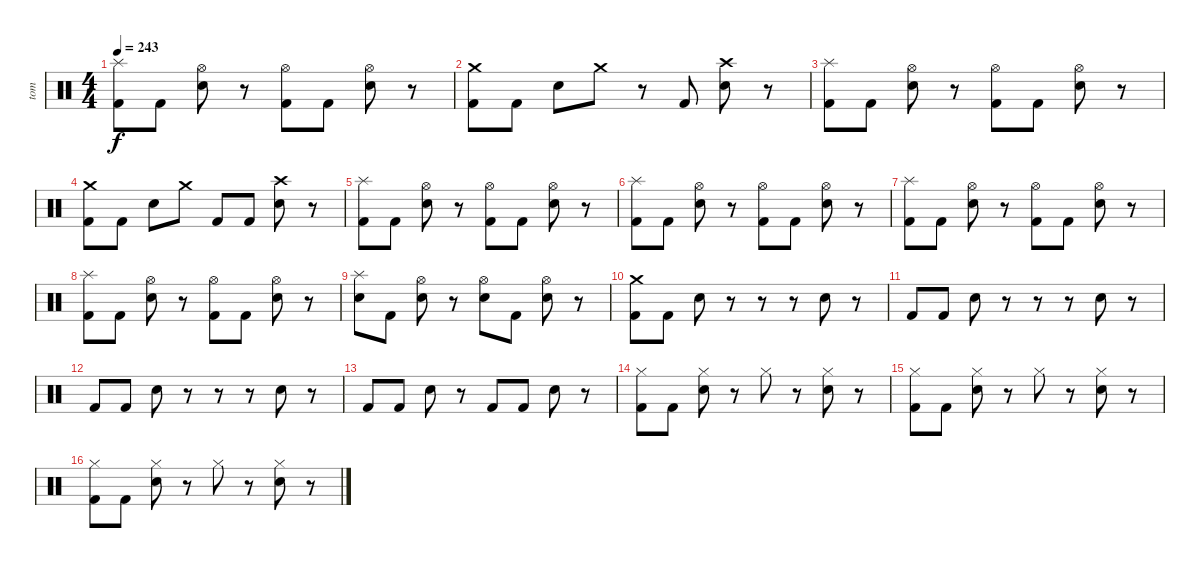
\track ("tom" "tom") {instrument percussion}
\staff {score}
\articulation defaults
\ts (4 4)
\tempo 243
\clef neutral
\ks c
("Splash (hit)" "Kick (hit) 2").8{dy f} "Kick (hit) 2".8 ("Hi-Hat (open)" "Electric Snare (hit)").8 r.8 ("Hi-Hat (open)" "Kick (hit) 2").8 "Kick (hit) 2".8 ("Hi-Hat (open)" "Electric Snare (hit)").8 r.8 |
("Crash medium (hit)" "Kick (hit) 2").8 "Kick (hit) 2".8 "Electric Snare (hit)".8 "Crash medium (hit)".8 r.8 "Kick (hit) 2".8 ("Crash high (hit)" "Electric Snare (hit)").8 r.8 |
("Splash (hit)" "Kick (hit) 2").8 "Kick (hit) 2".8 ("Hi-Hat (open)" "Electric Snare (hit)").8 r.8 ("Hi-Hat (open)" "Kick (hit) 2").8 "Kick (hit) 2".8 ("Hi-Hat (open)" "Electric Snare (hit)").8 r.8 |
("Crash medium (hit)" "Kick (hit) 2").8 "Kick (hit) 2".8 "Electric Snare (hit)".8 "Crash medium (hit)".8 "Kick (hit) 2".8 "Kick (hit) 2".8 ("Crash high (hit)" "Electric Snare (hit)").8 r.8 |
("Splash (hit)" "Kick (hit) 2").8 "Kick (hit) 2".8 ("Hi-Hat (open)" "Electric Snare (hit)").8 r.8 ("Hi-Hat (open)" "Kick (hit) 2").8 "Kick (hit) 2".8 ("Hi-Hat (open)" "Electric Snare (hit)").8 r.8 |
("Splash (hit)" "Kick (hit) 2").8 "Kick (hit) 2".8 ("Hi-Hat (open)" "Electric Snare (hit)").8 r.8 ("Hi-Hat (open)" "Kick (hit) 2").8 "Kick (hit) 2".8 ("Hi-Hat (open)" "Electric Snare (hit)").8 r.8 |
("Splash (hit)" "Kick (hit) 2").8 "Kick (hit) 2".8 ("Hi-Hat (open)" "Electric Snare (hit)").8 r.8 ("Hi-Hat (open)" "Kick (hit) 2").8 "Kick (hit) 2".8 ("Hi-Hat (open)" "Electric Snare (hit)").8 r.8 |
("Splash (hit)" "Kick (hit) 2").8 "Kick (hit) 2".8 ("Hi-Hat (open)" "Electric Snare (hit)").8 r.8 ("Hi-Hat (open)" "Kick (hit) 2").8 "Kick (hit) 2".8 ("Hi-Hat (open)" "Electric Snare (hit)").8 r.8 |
("Splash (hit)" "Electric Snare (hit)").8 "Kick (hit) 2".8 ("Hi-Hat (open)" "Electric Snare (hit)").8 r.8 ("Hi-Hat (open)" "Electric Snare (hit)").8 "Kick (hit) 2".8 ("Hi-Hat (open)" "Electric Snare (hit)").8 r.8 |
("Crash medium (hit)" "Kick (hit) 2").8 "Kick (hit) 2".8 "Electric Snare (hit)".8 r.8 r.8 r.8 "Electric Snare (hit)".8 r.8 |
"Kick (hit) 2".8 "Kick (hit) 2".8 "Electric Snare (hit)".8 r.8 r.8 r.8 "Electric Snare (hit)".8 r.8 |
"Kick (hit) 2".8 "Kick (hit) 2".8 "Electric Snare (hit)".8 r.8 r.8 r.8 "Electric Snare (hit)".8 r.8 |
"Kick (hit) 2".8 "Kick (hit) 2".8 "Electric Snare (hit)".8 r.8 "Kick (hit) 2".8 "Kick (hit) 2".8 "Electric Snare (hit)".8 r.8 |
("Hi-Hat (closed)" "Kick (hit) 2").8 "Kick (hit) 2".8 ("Hi-Hat (closed)" "Electric Snare (hit)").8 r.8 "Hi-Hat (closed)".8 r.8 ("Hi-Hat (closed)" "Electric Snare (hit)").8 r.8 |
("Hi-Hat (closed)" "Kick (hit) 2").8 "Kick (hit) 2".8 ("Hi-Hat (closed)" "Electric Snare (hit)").8 r.8 "Hi-Hat (closed)".8 r.8 ("Hi-Hat (closed)" "Electric Snare (hit)").8 r.8 |
("Hi-Hat (closed)" "Kick (hit) 2").8 "Kick (hit) 2".8 ("Hi-Hat (closed)" "Electric Snare (hit)").8 r.8 "Hi-Hat (closed)".8 r.8 ("Hi-Hat (closed)" "Electric Snare (hit)").8 r.8
